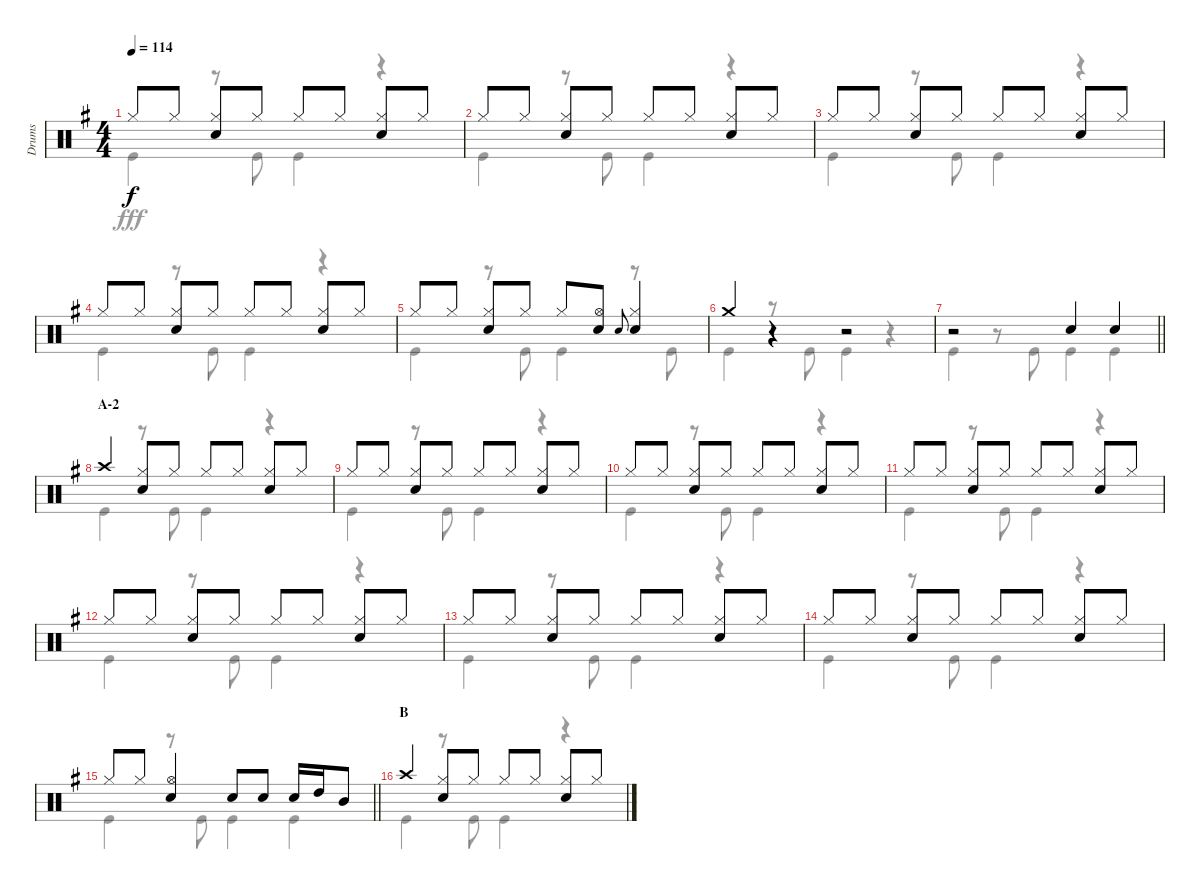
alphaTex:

\track ("Drums" "Drums") {instrument percussion}
\staff {score}
\articulation defaults
\voice
\ts (4 4)
\tempo 114
\clef neutral
\ks g "Hi-Hat (closed)".8{dy f} "Hi-Hat (closed)".8
("Hi-Hat (closed)" "Snare (hit) 2").8 "Hi-Hat (closed)".8 "Hi-Hat (closed)".8 "Hi-Hat (closed)".8 ("Hi-Hat (closed)" "Snare (hit) 2").8 "Hi-Hat (closed)".8 |
"Hi-Hat (closed)".8 "Hi-Hat (closed)".8 ("Hi-Hat (closed)" "Snare (hit) 2").8 "Hi-Hat (closed)".8 "Hi-Hat (closed)".8 "Hi-Hat (closed)".8 ("Hi-Hat (closed)" "Snare (hit) 2").8 "Hi-Hat (closed)".8 |
"Hi-Hat (closed)".8 "Hi-Hat (closed)".8 ("Hi-Hat (closed)" "Snare (hit) 2").8 "Hi-Hat (closed)".8 "Hi-Hat (closed)".8 "Hi-Hat (closed)".8 ("Hi-Hat (closed)" "Snare (hit) 2").8 "Hi-Hat (closed)".8 |
"Hi-Hat (closed)".8 "Hi-Hat (closed)".8 ("Hi-Hat (closed)" "Snare (hit) 2").8 "Hi-Hat (closed)".8 "Hi-Hat (closed)".8 "Hi-Hat (closed)".8 ("Hi-Hat (closed)" "Snare (hit) 2").8 "Hi-Hat (closed)".8 |
"Hi-Hat (closed)".8 "Hi-Hat (closed)".8 ("Hi-Hat (closed)" "Snare (hit) 2").8 "Hi-Hat (closed)".8 "Hi-Hat (closed)".8 ("Hi-Hat (open)" "Snare (hit) 2").8 "Snare (hit) 2".8{gr onbeat} ("Hi-Hat (closed)" "Snare (hit) 2").4 |
"Crash medium (hit)".4 r.4 r.2 |
\barLineRight lightlight
r.2 "Snare (hit) 2".4 "Snare (hit) 2".4 |
\section ("" "A-2")
"Crash high (hit)".4 ("Hi-Hat (closed)" "Snare (hit) 2").8 "Hi-Hat (closed)".8 "Hi-Hat (closed)".8 "Hi-Hat (closed)".8 ("Hi-Hat (closed)" "Snare (hit) 2").8 "Hi-Hat (closed)".8 |
"Hi-Hat (closed)".8 "Hi-Hat (closed)".8 ("Hi-Hat (closed)" "Snare (hit) 2").8 "Hi-Hat (closed)".8 "Hi-Hat (closed)".8 "Hi-Hat (closed)".8 ("Hi-Hat (closed)" "Snare (hit) 2").8 "Hi-Hat (closed)".8 |
"Hi-Hat (closed)".8 "Hi-Hat (closed)".8 ("Hi-Hat (closed)" "Snare (hit) 2").8 "Hi-Hat (closed)".8 "Hi-Hat (closed)".8 "Hi-Hat (closed)".8 ("Hi-Hat (closed)" "Snare (hit) 2").8 "Hi-Hat (closed)".8 |
"Hi-Hat (closed)".8 "Hi-Hat (closed)".8 ("Hi-Hat (closed)" "Snare (hit) 2").8 "Hi-Hat (closed)".8 "Hi-Hat (closed)".8 "Hi-Hat (closed)".8 ("Hi-Hat (closed)" "Snare (hit) 2").8 "Hi-Hat (closed)".8 |
"Hi-Hat (closed)".8 "Hi-Hat (closed)".8 ("Hi-Hat (closed)" "Snare (hit) 2").8 "Hi-Hat (closed)".8 "Hi-Hat (closed)".8 "Hi-Hat (closed)".8 ("Hi-Hat (closed)" "Snare (hit) 2").8 "Hi-Hat (closed)".8 |
"Hi-Hat (closed)".8 "Hi-Hat (closed)".8 ("Hi-Hat (closed)" "Snare (hit) 2").8 "Hi-Hat (closed)".8 "Hi-Hat (closed)".8 "Hi-Hat (closed)".8 ("Hi-Hat (closed)" "Snare (hit) 2").8 "Hi-Hat (closed)".8 |
"Hi-Hat (closed)".8 "Hi-Hat (closed)".8 ("Hi-Hat (closed)" "Snare (hit) 2").8 "Hi-Hat (closed)".8 "Hi-Hat (closed)".8 "Hi-Hat (closed)".8 ("Hi-Hat (closed)" "Snare (hit) 2").8 "Hi-Hat (closed)".8 |
\barLineRight lightlight "Hi-Hat (closed)".8 "Hi-Hat (closed)".8
("Hi-Hat (open)" "Snare (hit) 2").4 "Snare (hit) 2".8 "Snare (hit) 2".8 "Snare (hit) 2".16 "High Tom (hit)".16 "Mid Tom (hit)".8 |
\section ("" "B")
"Crash high (hit)".4 ("Hi-Hat (closed)" "Snare (hit) 2").8 "Hi-Hat (closed)".8 "Hi-Hat (closed)".8 "Hi-Hat (closed)".8 ("Hi-Hat (closed)" "Snare (hit) 2").8 "Hi-Hat (closed)".8
\voice
\clef neutral
\ottava regular
\simile none
\ks g "Kick (hit)".4{dy fff}
r.8 "Kick (hit)".8 "Kick (hit)".4 r.4 |
"Kick (hit)".4 r.8 "Kick (hit)".8 "Kick (hit)".4 r.4 |
"Kick (hit)".4 r.8 "Kick (hit)".8 "Kick (hit)".4 r.4 |
"Kick (hit)".4 r.8 "Kick (hit)".8 "Kick (hit)".4 r.4 |
"Kick (hit)".4 r.8 "Kick (hit)".8 "Kick (hit)".4 r.8 "Kick (hit)".8 |
"Kick (hit)".4 r.8 "Kick (hit)".8 "Kick (hit)".4 r.4 |
\barLineRight lightlight "Kick (hit)".4
r.8 "Kick (hit)".8 "Kick (hit)".4 "Kick (hit)".4 |
"Kick (hit)".4 r.8 "Kick (hit)".8 "Kick (hit)".4 r.4 |
"Kick (hit)".4 r.8 "Kick (hit)".8 "Kick (hit)".4 r.4 |
"Kick (hit)".4 r.8 "Kick (hit)".8 "Kick (hit)".4 r.4 |
"Kick (hit)".4 r.8 "Kick (hit)".8 "Kick (hit)".4 r.4 |
"Kick (hit)".4 r.8 "Kick (hit)".8 "Kick (hit)".4 r.4 |
"Kick (hit)".4 r.8 "Kick (hit)".8 "Kick (hit)".4 r.4 |
"Kick (hit)".4 r.8 "Kick (hit)".8 "Kick (hit)".4 r.4 |
\barLineRight lightlight "Kick (hit)".4
r.8 "Kick (hit)".8 "Kick (hit)".4 "Kick (hit)".4 |
"Kick (hit)".4 r.8 "Kick (hit)".8 "Kick (hit)".4 r.4
